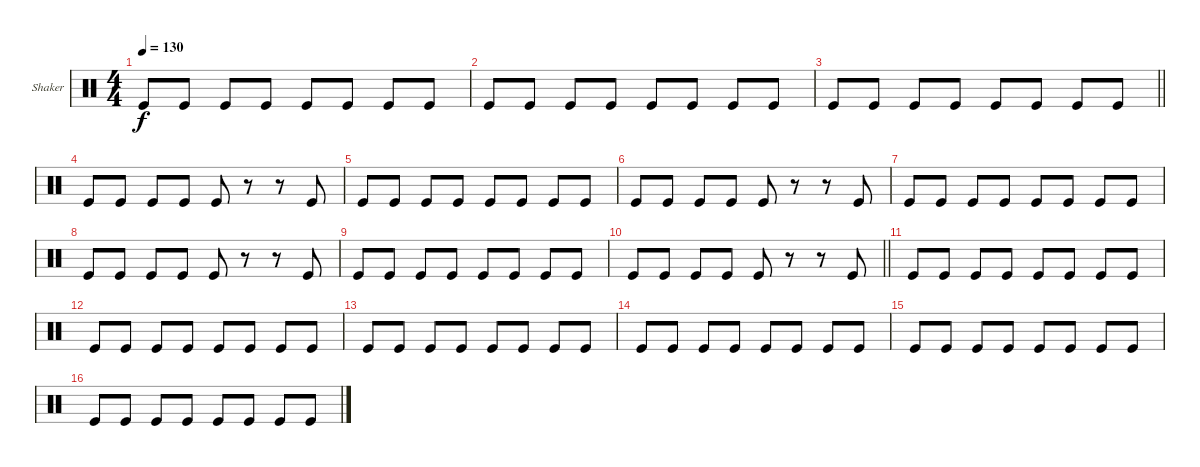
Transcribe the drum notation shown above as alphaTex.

\defaultSystemsLayout 4
\bracketExtendMode groupsimilarinstruments
\firstSystemTrackNameOrientation horizontal
\otherSystemsTrackNameOrientation horizontal
\track ("Shaker" "Shaker") {instrument percussion}
\staff {score}
\articulation defaults
\ts (4 4)
\tempo 130
\clef neutral
\scale
0.333333
\ks aminor "Kick (hit)".8{dy f} "Kick (hit)".8 "Kick (hit)".8 "Kick (hit)".8 "Kick (hit)".8 "Kick (hit)".8 "Kick (hit)".8 "Kick (hit)".8
|
\scale
0.333333 "Kick (hit)".8 "Kick (hit)".8 "Kick (hit)".8 "Kick (hit)".8 "Kick (hit)".8 "Kick (hit)".8 "Kick (hit)".8 "Kick (hit)".8 |
\scale
0.333333
\barLineRight lightlight "Kick (hit)".8 "Kick (hit)".8 "Kick (hit)".8 "Kick (hit)".8 "Kick (hit)".8 "Kick (hit)".8 "Kick (hit)".8 "Kick (hit)".8
|
\scale
0.333333 "Kick (hit)".8 "Kick (hit)".8 "Kick (hit)".8 "Kick (hit)".8 "Kick (hit)".8 r.8 r.8 "Kick (hit)".8 |
\scale
0.333333 "Kick (hit)".8 "Kick (hit)".8 "Kick (hit)".8 "Kick (hit)".8 "Kick (hit)".8 "Kick (hit)".8 "Kick (hit)".8 "Kick (hit)".8 |
\scale
0.333333 "Kick (hit)".8 "Kick (hit)".8 "Kick (hit)".8 "Kick (hit)".8 "Kick (hit)".8 r.8 r.8 "Kick (hit)".8 |
\scale
0.333333 "Kick (hit)".8 "Kick (hit)".8 "Kick (hit)".8 "Kick (hit)".8 "Kick (hit)".8 "Kick (hit)".8 "Kick (hit)".8 "Kick (hit)".8 |
\scale
0.333333 "Kick (hit)".8 "Kick (hit)".8 "Kick (hit)".8 "Kick (hit)".8 "Kick (hit)".8 r.8 r.8 "Kick (hit)".8 |
\scale
0.333333 "Kick (hit)".8 "Kick (hit)".8 "Kick (hit)".8 "Kick (hit)".8 "Kick (hit)".8 "Kick (hit)".8 "Kick (hit)".8 "Kick (hit)".8 |
\scale
0.333333
\barLineRight lightlight "Kick (hit)".8 "Kick (hit)".8 "Kick (hit)".8 "Kick (hit)".8 "Kick (hit)".8
r.8 r.8 "Kick (hit)".8 |
\scale
0.333333 "Kick (hit)".8 "Kick (hit)".8 "Kick (hit)".8 "Kick (hit)".8 "Kick (hit)".8 "Kick (hit)".8 "Kick (hit)".8 "Kick (hit)".8 |
\scale
0.333333 "Kick (hit)".8 "Kick (hit)".8 "Kick (hit)".8 "Kick (hit)".8 "Kick (hit)".8 "Kick (hit)".8 "Kick (hit)".8 "Kick (hit)".8 |
\scale
0.333333 "Kick (hit)".8 "Kick (hit)".8 "Kick (hit)".8 "Kick (hit)".8 "Kick (hit)".8 "Kick (hit)".8 "Kick (hit)".8 "Kick (hit)".8 |
\scale
0.333333 "Kick (hit)".8 "Kick (hit)".8 "Kick (hit)".8 "Kick (hit)".8 "Kick (hit)".8 "Kick (hit)".8 "Kick (hit)".8 "Kick (hit)".8 |
\scale
0.333333 "Kick (hit)".8 "Kick (hit)".8 "Kick (hit)".8 "Kick (hit)".8 "Kick (hit)".8 "Kick (hit)".8 "Kick (hit)".8 "Kick (hit)".8 |
\scale
0.333333 "Kick (hit)".8 "Kick (hit)".8 "Kick (hit)".8 "Kick (hit)".8 "Kick (hit)".8 "Kick (hit)".8 "Kick (hit)".8 "Kick (hit)".8
